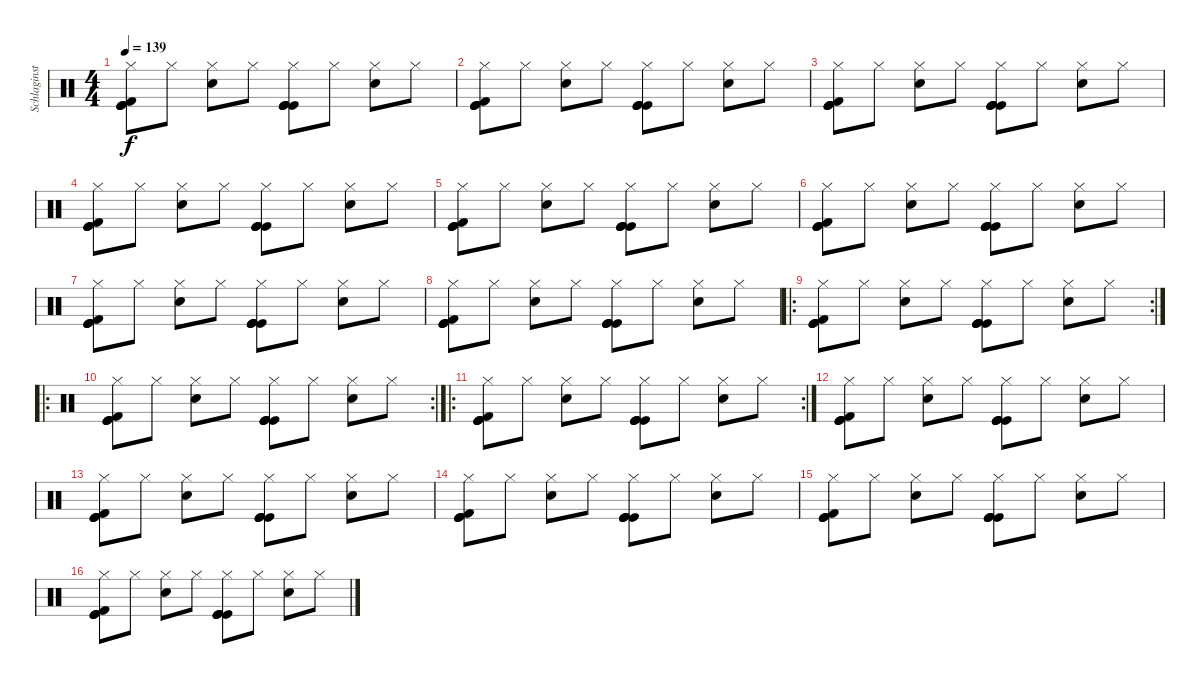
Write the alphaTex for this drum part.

\track ("Schlaginstrumente - Auswahl" "Schlaginst") {instrument percussion}
\staff {score}
\articulation defaults
\ts (4 4)
\tempo 139
\clef neutral
\ks c
("Kick (hit)" "Kick (hit)" "Kick (hit)" "Hi-Hat (closed)" "Kick (hit) 2").8{dy f} "Hi-Hat (closed)".8 ("Hi-Hat (closed)" "Snare (hit) 2").8 "Hi-Hat (closed)".8 ("Kick (hit)" "Kick (hit)" "Kick (hit)" "Hi-Hat (closed)" "Kick (hit)").8 "Hi-Hat (closed)".8 ("Hi-Hat (closed)" "Snare (hit) 2").8 "Hi-Hat (closed)".8 |
("Kick (hit)" "Kick (hit)" "Kick (hit)" "Hi-Hat (closed)" "Kick (hit) 2").8 "Hi-Hat (closed)".8 ("Hi-Hat (closed)" "Snare (hit) 2").8 "Hi-Hat (closed)".8 ("Kick (hit)" "Kick (hit)" "Kick (hit)" "Hi-Hat (closed)" "Kick (hit)").8 "Hi-Hat (closed)".8 ("Hi-Hat (closed)" "Snare (hit) 2").8 "Hi-Hat (closed)".8 |
("Kick (hit)" "Kick (hit)" "Kick (hit)" "Hi-Hat (closed)" "Kick (hit) 2").8 "Hi-Hat (closed)".8 ("Hi-Hat (closed)" "Snare (hit) 2").8 "Hi-Hat (closed)".8 ("Kick (hit)" "Kick (hit)" "Kick (hit)" "Hi-Hat (closed)" "Kick (hit)").8 "Hi-Hat (closed)".8 ("Hi-Hat (closed)" "Snare (hit) 2").8 "Hi-Hat (closed)".8 |
("Kick (hit)" "Kick (hit)" "Kick (hit)" "Hi-Hat (closed)" "Kick (hit) 2").8 "Hi-Hat (closed)".8 ("Hi-Hat (closed)" "Snare (hit) 2").8 "Hi-Hat (closed)".8 ("Kick (hit)" "Kick (hit)" "Kick (hit)" "Hi-Hat (closed)" "Kick (hit)").8 "Hi-Hat (closed)".8 ("Hi-Hat (closed)" "Snare (hit) 2").8 "Hi-Hat (closed)".8 |
("Kick (hit)" "Kick (hit)" "Kick (hit)" "Hi-Hat (closed)" "Kick (hit) 2").8 "Hi-Hat (closed)".8 ("Hi-Hat (closed)" "Snare (hit) 2").8 "Hi-Hat (closed)".8 ("Kick (hit)" "Kick (hit)" "Kick (hit)" "Hi-Hat (closed)" "Kick (hit)").8 "Hi-Hat (closed)".8 ("Hi-Hat (closed)" "Snare (hit) 2").8 "Hi-Hat (closed)".8 |
("Kick (hit)" "Kick (hit)" "Kick (hit)" "Hi-Hat (closed)" "Kick (hit) 2").8 "Hi-Hat (closed)".8 ("Hi-Hat (closed)" "Snare (hit) 2").8 "Hi-Hat (closed)".8 ("Kick (hit)" "Kick (hit)" "Kick (hit)" "Hi-Hat (closed)" "Kick (hit)").8 "Hi-Hat (closed)".8 ("Hi-Hat (closed)" "Snare (hit) 2").8 "Hi-Hat (closed)".8 |
("Kick (hit)" "Kick (hit)" "Kick (hit)" "Hi-Hat (closed)" "Kick (hit) 2").8 "Hi-Hat (closed)".8 ("Hi-Hat (closed)" "Snare (hit) 2").8 "Hi-Hat (closed)".8 ("Kick (hit)" "Kick (hit)" "Kick (hit)" "Hi-Hat (closed)" "Kick (hit)").8 "Hi-Hat (closed)".8 ("Hi-Hat (closed)" "Snare (hit) 2").8 "Hi-Hat (closed)".8 |
("Kick (hit)" "Kick (hit)" "Kick (hit)" "Hi-Hat (closed)" "Kick (hit) 2").8 "Hi-Hat (closed)".8 ("Hi-Hat (closed)" "Snare (hit) 2").8 "Hi-Hat (closed)".8 ("Kick (hit)" "Kick (hit)" "Kick (hit)" "Hi-Hat (closed)" "Kick (hit)").8 "Hi-Hat (closed)".8 ("Hi-Hat (closed)" "Snare (hit) 2").8 "Hi-Hat (closed)".8 |
\ro
\rc 2
("Kick (hit)" "Kick (hit)" "Kick (hit)" "Hi-Hat (closed)" "Kick (hit) 2").8 "Hi-Hat (closed)".8 ("Hi-Hat (closed)" "Snare (hit) 2").8 "Hi-Hat (closed)".8 ("Kick (hit)" "Kick (hit)" "Kick (hit)" "Hi-Hat (closed)" "Kick (hit)").8 "Hi-Hat (closed)".8 ("Hi-Hat (closed)" "Snare (hit) 2").8 "Hi-Hat (closed)".8 |
\ro
\rc 2
("Kick (hit)" "Kick (hit)" "Kick (hit)" "Hi-Hat (closed)" "Kick (hit) 2").8 "Hi-Hat (closed)".8 ("Hi-Hat (closed)" "Snare (hit) 2").8 "Hi-Hat (closed)".8 ("Kick (hit)" "Kick (hit)" "Kick (hit)" "Hi-Hat (closed)" "Kick (hit)").8 "Hi-Hat (closed)".8 ("Hi-Hat (closed)" "Snare (hit) 2").8 "Hi-Hat (closed)".8 |
\ro
\rc 2
("Kick (hit)" "Kick (hit)" "Kick (hit)" "Hi-Hat (closed)" "Kick (hit) 2").8 "Hi-Hat (closed)".8 ("Hi-Hat (closed)" "Snare (hit) 2").8 "Hi-Hat (closed)".8 ("Kick (hit)" "Kick (hit)" "Kick (hit)" "Hi-Hat (closed)" "Kick (hit)").8 "Hi-Hat (closed)".8 ("Hi-Hat (closed)" "Snare (hit) 2").8 "Hi-Hat (closed)".8 |
("Kick (hit)" "Kick (hit)" "Kick (hit)" "Hi-Hat (closed)" "Kick (hit) 2").8 "Hi-Hat (closed)".8 ("Hi-Hat (closed)" "Snare (hit) 2").8 "Hi-Hat (closed)".8 ("Kick (hit)" "Kick (hit)" "Kick (hit)" "Hi-Hat (closed)" "Kick (hit)").8 "Hi-Hat (closed)".8 ("Hi-Hat (closed)" "Snare (hit) 2").8 "Hi-Hat (closed)".8 |
("Kick (hit)" "Kick (hit)" "Kick (hit)" "Hi-Hat (closed)" "Kick (hit) 2").8 "Hi-Hat (closed)".8 ("Hi-Hat (closed)" "Snare (hit) 2").8 "Hi-Hat (closed)".8 ("Kick (hit)" "Kick (hit)" "Kick (hit)" "Hi-Hat (closed)" "Kick (hit)").8 "Hi-Hat (closed)".8 ("Hi-Hat (closed)" "Snare (hit) 2").8 "Hi-Hat (closed)".8 |
("Kick (hit)" "Kick (hit)" "Kick (hit)" "Hi-Hat (closed)" "Kick (hit) 2").8 "Hi-Hat (closed)".8 ("Hi-Hat (closed)" "Snare (hit) 2").8 "Hi-Hat (closed)".8 ("Kick (hit)" "Kick (hit)" "Kick (hit)" "Hi-Hat (closed)" "Kick (hit)").8 "Hi-Hat (closed)".8 ("Hi-Hat (closed)" "Snare (hit) 2").8 "Hi-Hat (closed)".8 |
("Kick (hit)" "Kick (hit)" "Kick (hit)" "Hi-Hat (closed)" "Kick (hit) 2").8 "Hi-Hat (closed)".8 ("Hi-Hat (closed)" "Snare (hit) 2").8 "Hi-Hat (closed)".8 ("Kick (hit)" "Kick (hit)" "Kick (hit)" "Hi-Hat (closed)" "Kick (hit)").8 "Hi-Hat (closed)".8 ("Hi-Hat (closed)" "Snare (hit) 2").8 "Hi-Hat (closed)".8 |
("Kick (hit)" "Kick (hit)" "Kick (hit)" "Hi-Hat (closed)" "Kick (hit) 2").8 "Hi-Hat (closed)".8 ("Hi-Hat (closed)" "Snare (hit) 2").8 "Hi-Hat (closed)".8 ("Kick (hit)" "Kick (hit)" "Kick (hit)" "Hi-Hat (closed)" "Kick (hit)").8 "Hi-Hat (closed)".8 ("Hi-Hat (closed)" "Snare (hit) 2").8 "Hi-Hat (closed)".8
